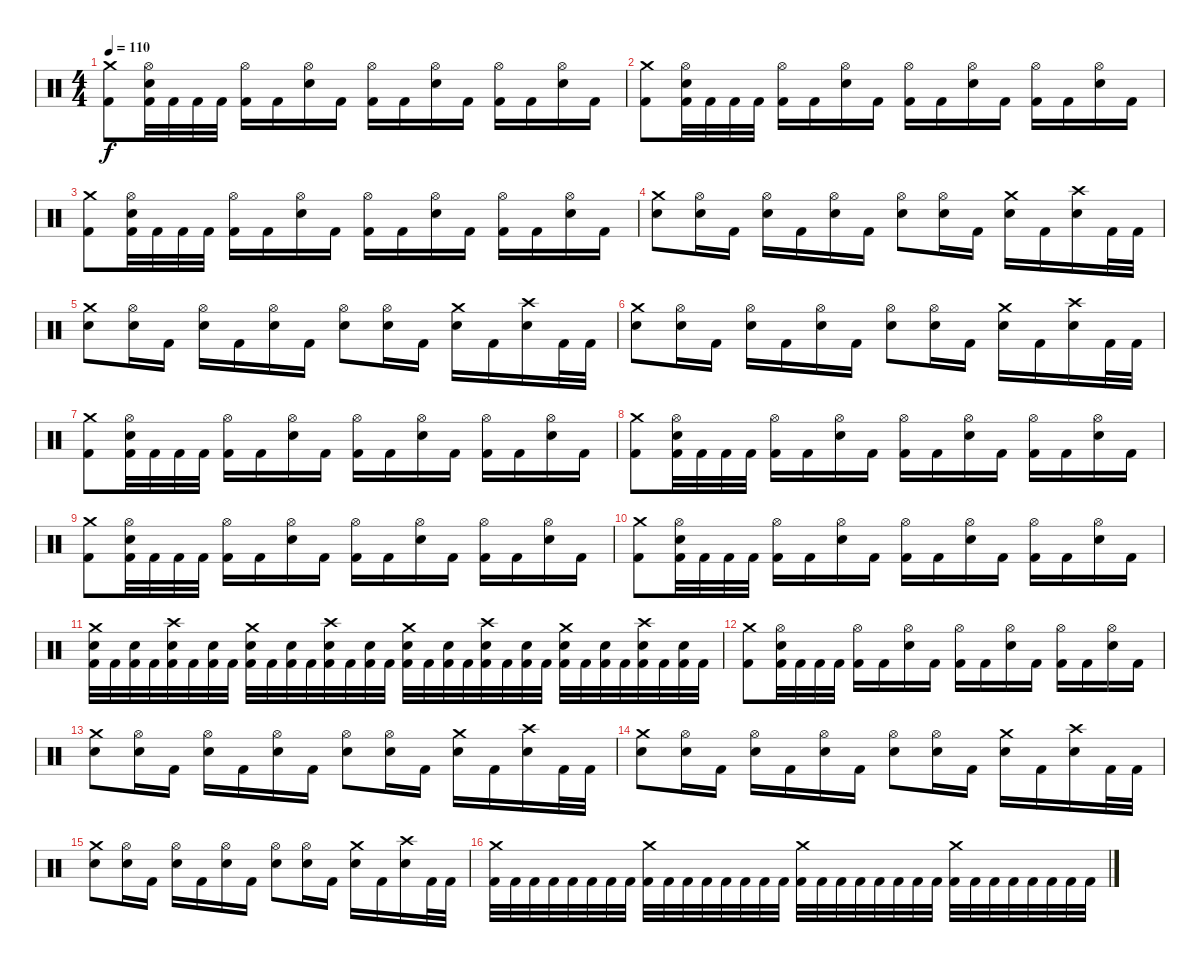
\track "" {instrument percussion}
\staff {score}
\articulation defaults
\ts (4 4)
\tempo 110
\clef neutral
\ks c
("Crash medium (hit)" "Kick (hit) 2").8{dy f} ("Hi-Hat (open)" "Electric Snare (hit)" "Kick (hit) 2").32 "Kick (hit) 2".32 "Kick (hit) 2".32 "Kick (hit) 2".32 ("Hi-Hat (open)" "Kick (hit) 2").16 "Kick (hit) 2".16 ("Hi-Hat (open)" "Electric Snare (hit)").16 "Kick (hit) 2".16 ("Hi-Hat (open)" "Kick (hit) 2").16 "Kick (hit) 2".16 ("Hi-Hat (open)" "Electric Snare (hit)").16 "Kick (hit) 2".16 ("Hi-Hat (open)" "Kick (hit) 2").16 "Kick (hit) 2".16 ("Hi-Hat (open)" "Electric Snare (hit)").16 "Kick (hit) 2".16 |
("Crash medium (hit)" "Kick (hit) 2").8 ("Hi-Hat (open)" "Electric Snare (hit)" "Kick (hit) 2").32 "Kick (hit) 2".32 "Kick (hit) 2".32 "Kick (hit) 2".32 ("Hi-Hat (open)" "Kick (hit) 2").16 "Kick (hit) 2".16 ("Hi-Hat (open)" "Electric Snare (hit)").16 "Kick (hit) 2".16 ("Hi-Hat (open)" "Kick (hit) 2").16 "Kick (hit) 2".16 ("Hi-Hat (open)" "Electric Snare (hit)").16 "Kick (hit) 2".16 ("Hi-Hat (open)" "Kick (hit) 2").16 "Kick (hit) 2".16 ("Hi-Hat (open)" "Electric Snare (hit)").16 "Kick (hit) 2".16 |
("Crash medium (hit)" "Kick (hit) 2").8 ("Hi-Hat (open)" "Electric Snare (hit)" "Kick (hit) 2").32 "Kick (hit) 2".32 "Kick (hit) 2".32 "Kick (hit) 2".32 ("Hi-Hat (open)" "Kick (hit) 2").16 "Kick (hit) 2".16 ("Hi-Hat (open)" "Electric Snare (hit)").16 "Kick (hit) 2".16 ("Hi-Hat (open)" "Kick (hit) 2").16 "Kick (hit) 2".16 ("Hi-Hat (open)" "Electric Snare (hit)").16 "Kick (hit) 2".16 ("Hi-Hat (open)" "Kick (hit) 2").16 "Kick (hit) 2".16 ("Hi-Hat (open)" "Electric Snare (hit)").16 "Kick (hit) 2".16 |
("Crash medium (hit)" "Electric Snare (hit)").8 ("Hi-Hat (open)" "Electric Snare (hit)").16 "Kick (hit) 2".16 ("Hi-Hat (open)" "Electric Snare (hit)").16 "Kick (hit) 2".16 ("Hi-Hat (open)" "Electric Snare (hit)").16 "Kick (hit) 2".16 ("Hi-Hat (open)" "Electric Snare (hit)").8 ("Hi-Hat (open)" "Electric Snare (hit)").16 "Kick (hit) 2".16 ("Crash medium (hit)" "Electric Snare (hit)").16 "Kick (hit) 2".16 ("Crash high (hit)" "Electric Snare (hit)").16 "Kick (hit) 2".32 "Kick (hit) 2".32 |
("Crash medium (hit)" "Electric Snare (hit)").8 ("Hi-Hat (open)" "Electric Snare (hit)").16 "Kick (hit) 2".16 ("Hi-Hat (open)" "Electric Snare (hit)").16 "Kick (hit) 2".16 ("Hi-Hat (open)" "Electric Snare (hit)").16 "Kick (hit) 2".16 ("Hi-Hat (open)" "Electric Snare (hit)").8 ("Hi-Hat (open)" "Electric Snare (hit)").16 "Kick (hit) 2".16 ("Crash medium (hit)" "Electric Snare (hit)").16 "Kick (hit) 2".16 ("Crash high (hit)" "Electric Snare (hit)").16 "Kick (hit) 2".32 "Kick (hit) 2".32 |
("Crash medium (hit)" "Electric Snare (hit)").8 ("Hi-Hat (open)" "Electric Snare (hit)").16 "Kick (hit) 2".16 ("Hi-Hat (open)" "Electric Snare (hit)").16 "Kick (hit) 2".16 ("Hi-Hat (open)" "Electric Snare (hit)").16 "Kick (hit) 2".16 ("Hi-Hat (open)" "Electric Snare (hit)").8 ("Hi-Hat (open)" "Electric Snare (hit)").16 "Kick (hit) 2".16 ("Crash medium (hit)" "Electric Snare (hit)").16 "Kick (hit) 2".16 ("Crash high (hit)" "Electric Snare (hit)").16 "Kick (hit) 2".32 "Kick (hit) 2".32 |
("Crash medium (hit)" "Kick (hit) 2").8 ("Hi-Hat (open)" "Electric Snare (hit)" "Kick (hit) 2").32 "Kick (hit) 2".32 "Kick (hit) 2".32 "Kick (hit) 2".32 ("Hi-Hat (open)" "Kick (hit) 2").16 "Kick (hit) 2".16 ("Hi-Hat (open)" "Electric Snare (hit)").16 "Kick (hit) 2".16 ("Hi-Hat (open)" "Kick (hit) 2").16 "Kick (hit) 2".16 ("Hi-Hat (open)" "Electric Snare (hit)").16 "Kick (hit) 2".16 ("Hi-Hat (open)" "Kick (hit) 2").16 "Kick (hit) 2".16 ("Hi-Hat (open)" "Electric Snare (hit)").16 "Kick (hit) 2".16 |
("Crash medium (hit)" "Kick (hit) 2").8 ("Hi-Hat (open)" "Electric Snare (hit)" "Kick (hit) 2").32 "Kick (hit) 2".32 "Kick (hit) 2".32 "Kick (hit) 2".32 ("Hi-Hat (open)" "Kick (hit) 2").16 "Kick (hit) 2".16 ("Hi-Hat (open)" "Electric Snare (hit)").16 "Kick (hit) 2".16 ("Hi-Hat (open)" "Kick (hit) 2").16 "Kick (hit) 2".16 ("Hi-Hat (open)" "Electric Snare (hit)").16 "Kick (hit) 2".16 ("Hi-Hat (open)" "Kick (hit) 2").16 "Kick (hit) 2".16 ("Hi-Hat (open)" "Electric Snare (hit)").16 "Kick (hit) 2".16 |
("Crash medium (hit)" "Kick (hit) 2").8 ("Hi-Hat (open)" "Electric Snare (hit)" "Kick (hit) 2").32 "Kick (hit) 2".32 "Kick (hit) 2".32 "Kick (hit) 2".32 ("Hi-Hat (open)" "Kick (hit) 2").16 "Kick (hit) 2".16 ("Hi-Hat (open)" "Electric Snare (hit)").16 "Kick (hit) 2".16 ("Hi-Hat (open)" "Kick (hit) 2").16 "Kick (hit) 2".16 ("Hi-Hat (open)" "Electric Snare (hit)").16 "Kick (hit) 2".16 ("Hi-Hat (open)" "Kick (hit) 2").16 "Kick (hit) 2".16 ("Hi-Hat (open)" "Electric Snare (hit)").16 "Kick (hit) 2".16 |
("Crash medium (hit)" "Kick (hit) 2").8 ("Hi-Hat (open)" "Electric Snare (hit)" "Kick (hit) 2").32 "Kick (hit) 2".32 "Kick (hit) 2".32 "Kick (hit) 2".32 ("Hi-Hat (open)" "Kick (hit) 2").16 "Kick (hit) 2".16 ("Hi-Hat (open)" "Electric Snare (hit)").16 "Kick (hit) 2".16 ("Hi-Hat (open)" "Kick (hit) 2").16 "Kick (hit) 2".16 ("Hi-Hat (open)" "Electric Snare (hit)").16 "Kick (hit) 2".16 ("Hi-Hat (open)" "Kick (hit) 2").16 "Kick (hit) 2".16 ("Hi-Hat (open)" "Electric Snare (hit)").16 "Kick (hit) 2".16 |
("Crash medium (hit)" "Snare (hit) 2" "Kick (hit) 2").32 "Kick (hit) 2".32 ("Snare (hit) 2" "Kick (hit) 2").32 "Kick (hit) 2".32 ("Crash high (hit)" "Snare (hit) 2" "Kick (hit) 2").32 "Kick (hit) 2".32 ("Snare (hit) 2" "Kick (hit) 2").32 "Kick (hit) 2".32 ("Crash medium (hit)" "Snare (hit) 2" "Kick (hit) 2").32 "Kick (hit) 2".32 ("Snare (hit) 2" "Kick (hit) 2").32 "Kick (hit) 2".32 ("Crash high (hit)" "Snare (hit) 2" "Kick (hit) 2").32 "Kick (hit) 2".32 ("Snare (hit) 2" "Kick (hit) 2").32 "Kick (hit) 2".32 ("Crash medium (hit)" "Snare (hit) 2" "Kick (hit) 2").32 "Kick (hit) 2".32 ("Snare (hit) 2" "Kick (hit) 2").32 "Kick (hit) 2".32 ("Crash high (hit)" "Snare (hit) 2" "Kick (hit) 2").32 "Kick (hit) 2".32 ("Snare (hit) 2" "Kick (hit) 2").32 "Kick (hit) 2".32 ("Crash medium (hit)" "Snare (hit) 2" "Kick (hit) 2").32 "Kick (hit) 2".32 ("Snare (hit) 2" "Kick (hit) 2").32 "Kick (hit) 2".32 ("Crash high (hit)" "Snare (hit) 2" "Kick (hit) 2").32 "Kick (hit) 2".32 ("Snare (hit) 2" "Kick (hit) 2").32 "Kick (hit) 2".32 |
("Crash medium (hit)" "Kick (hit) 2").8 ("Hi-Hat (open)" "Electric Snare (hit)" "Kick (hit) 2").32 "Kick (hit) 2".32 "Kick (hit) 2".32 "Kick (hit) 2".32 ("Hi-Hat (open)" "Kick (hit) 2").16 "Kick (hit) 2".16 ("Hi-Hat (open)" "Electric Snare (hit)").16 "Kick (hit) 2".16 ("Hi-Hat (open)" "Kick (hit) 2").16 "Kick (hit) 2".16 ("Hi-Hat (open)" "Electric Snare (hit)").16 "Kick (hit) 2".16 ("Hi-Hat (open)" "Kick (hit) 2").16 "Kick (hit) 2".16 ("Hi-Hat (open)" "Electric Snare (hit)").16 "Kick (hit) 2".16 |
("Crash medium (hit)" "Electric Snare (hit)").8 ("Hi-Hat (open)" "Electric Snare (hit)").16 "Kick (hit) 2".16 ("Hi-Hat (open)" "Electric Snare (hit)").16 "Kick (hit) 2".16 ("Hi-Hat (open)" "Electric Snare (hit)").16 "Kick (hit) 2".16 ("Hi-Hat (open)" "Electric Snare (hit)").8 ("Hi-Hat (open)" "Electric Snare (hit)").16 "Kick (hit) 2".16 ("Crash medium (hit)" "Electric Snare (hit)").16 "Kick (hit) 2".16 ("Crash high (hit)" "Electric Snare (hit)").16 "Kick (hit) 2".32 "Kick (hit) 2".32 |
("Crash medium (hit)" "Electric Snare (hit)").8 ("Hi-Hat (open)" "Electric Snare (hit)").16 "Kick (hit) 2".16 ("Hi-Hat (open)" "Electric Snare (hit)").16 "Kick (hit) 2".16 ("Hi-Hat (open)" "Electric Snare (hit)").16 "Kick (hit) 2".16 ("Hi-Hat (open)" "Electric Snare (hit)").8 ("Hi-Hat (open)" "Electric Snare (hit)").16 "Kick (hit) 2".16 ("Crash medium (hit)" "Electric Snare (hit)").16 "Kick (hit) 2".16 ("Crash high (hit)" "Electric Snare (hit)").16 "Kick (hit) 2".32 "Kick (hit) 2".32 |
("Crash medium (hit)" "Electric Snare (hit)").8 ("Hi-Hat (open)" "Electric Snare (hit)").16 "Kick (hit) 2".16 ("Hi-Hat (open)" "Electric Snare (hit)").16 "Kick (hit) 2".16 ("Hi-Hat (open)" "Electric Snare (hit)").16 "Kick (hit) 2".16 ("Hi-Hat (open)" "Electric Snare (hit)").8 ("Hi-Hat (open)" "Electric Snare (hit)").16 "Kick (hit) 2".16 ("Crash medium (hit)" "Electric Snare (hit)").16 "Kick (hit) 2".16 ("Crash high (hit)" "Electric Snare (hit)").16 "Kick (hit) 2".32 "Kick (hit) 2".32 |
("Crash medium (hit)" "Kick (hit) 2").32 "Kick (hit) 2".32 "Kick (hit) 2".32 "Kick (hit) 2".32 "Kick (hit) 2".32 "Kick (hit) 2".32 "Kick (hit) 2".32 "Kick (hit) 2".32 ("Crash medium (hit)" "Kick (hit) 2").32 "Kick (hit) 2".32 "Kick (hit) 2".32 "Kick (hit) 2".32 "Kick (hit) 2".32 "Kick (hit) 2".32 "Kick (hit) 2".32 "Kick (hit) 2".32 ("Crash medium (hit)" "Kick (hit) 2").32 "Kick (hit) 2".32 "Kick (hit) 2".32 "Kick (hit) 2".32 "Kick (hit) 2".32 "Kick (hit) 2".32 "Kick (hit) 2".32 "Kick (hit) 2".32 ("Crash medium (hit)" "Kick (hit) 2").32 "Kick (hit) 2".32 "Kick (hit) 2".32 "Kick (hit) 2".32 "Kick (hit) 2".32 "Kick (hit) 2".32 "Kick (hit) 2".32 "Kick (hit) 2".32
